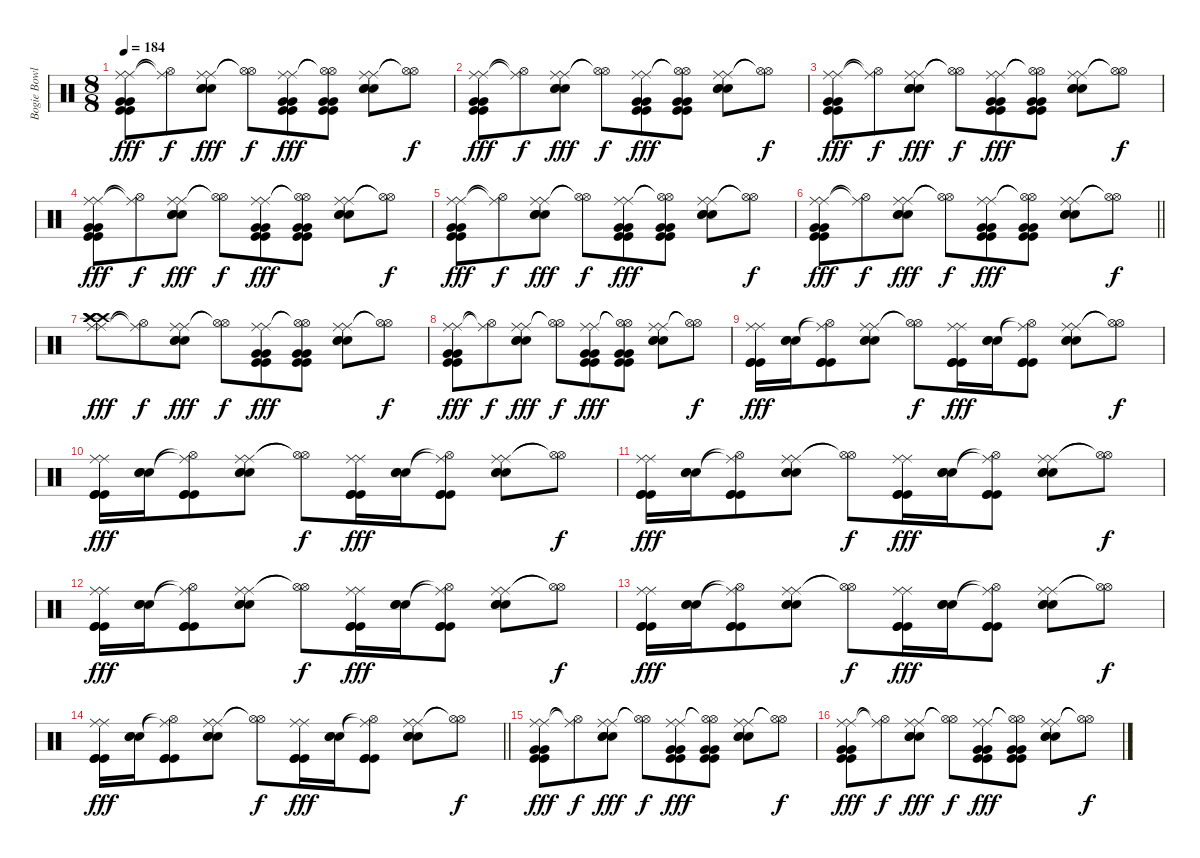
\track ("Bogie Bowles Drums" "Bogie Bowl") {instrument percussion}
\staff {score}
\articulation defaults
\ts (8 8)
\tempo 184
\clef neutral
\ks c
("Ride (middle)" "Ride (middle)" "Kick (hit)" "Kick (hit)" "Very Low Tom (hit)" "Very Low Tom (hit)").8{dy fff} ("Hi-Hat (open)"{t} "Ride (middle)"{t}).8{dy f} ("Ride (middle)" "Ride (middle)" "Snare (hit) 2" "Snare (hit) 2" "Snare (hit) 2").8{dy fff} ("Hi-Hat (open)"{t} "Hi-Hat (open)"{t}).8{dy f} ("Ride (middle)" "Ride (middle)" "Kick (hit)" "Kick (hit)" "Very Low Tom (hit)" "Very Low Tom (hit)").8{dy fff} ("Hi-Hat (open)"{t} "Hi-Hat (open)"{t} "Kick (hit)" "Kick (hit)" "Very Low Tom (hit)" "Very Low Tom (hit)").8 ("Ride (middle)" "Ride (middle)" "Snare (hit) 2" "Snare (hit) 2" "Snare (hit) 2").8 ("Hi-Hat (open)"{t} "Hi-Hat (open)"{t}).8{dy f} |
("Ride (middle)" "Ride (middle)" "Kick (hit)" "Kick (hit)" "Very Low Tom (hit)" "Very Low Tom (hit)").8{dy fff} ("Hi-Hat (open)"{t} "Ride (middle)"{t}).8{dy f} ("Ride (middle)" "Ride (middle)" "Snare (hit) 2" "Snare (hit) 2" "Snare (hit) 2").8{dy fff} ("Hi-Hat (open)"{t} "Hi-Hat (open)"{t}).8{dy f} ("Ride (middle)" "Ride (middle)" "Kick (hit)" "Kick (hit)" "Very Low Tom (hit)" "Very Low Tom (hit)").8{dy fff} ("Hi-Hat (open)"{t} "Hi-Hat (open)"{t} "Kick (hit)" "Kick (hit)" "Very Low Tom (hit)" "Very Low Tom (hit)").8 ("Ride (middle)" "Ride (middle)" "Snare (hit) 2" "Snare (hit) 2" "Snare (hit) 2").8 ("Hi-Hat (open)"{t} "Hi-Hat (open)"{t}).8{dy f} |
("Ride (middle)" "Ride (middle)" "Kick (hit)" "Kick (hit)" "Very Low Tom (hit)" "Very Low Tom (hit)").8{dy fff} ("Hi-Hat (open)"{t} "Ride (middle)"{t}).8{dy f} ("Ride (middle)" "Ride (middle)" "Snare (hit) 2" "Snare (hit) 2" "Snare (hit) 2").8{dy fff} ("Hi-Hat (open)"{t} "Hi-Hat (open)"{t}).8{dy f} ("Ride (middle)" "Ride (middle)" "Kick (hit)" "Kick (hit)" "Very Low Tom (hit)" "Very Low Tom (hit)").8{dy fff} ("Hi-Hat (open)"{t} "Hi-Hat (open)"{t} "Kick (hit)" "Kick (hit)" "Very Low Tom (hit)" "Very Low Tom (hit)").8 ("Ride (middle)" "Ride (middle)" "Snare (hit) 2" "Snare (hit) 2" "Snare (hit) 2").8 ("Hi-Hat (open)"{t} "Hi-Hat (open)"{t}).8{dy f} |
("Ride (middle)" "Ride (middle)" "Kick (hit)" "Kick (hit)" "Very Low Tom (hit)" "Very Low Tom (hit)").8{dy fff} ("Hi-Hat (open)"{t} "Ride (middle)"{t}).8{dy f} ("Ride (middle)" "Ride (middle)" "Snare (hit) 2" "Snare (hit) 2" "Snare (hit) 2").8{dy fff} ("Hi-Hat (open)"{t} "Hi-Hat (open)"{t}).8{dy f} ("Ride (middle)" "Ride (middle)" "Kick (hit)" "Kick (hit)" "Very Low Tom (hit)" "Very Low Tom (hit)").8{dy fff} ("Hi-Hat (open)"{t} "Hi-Hat (open)"{t} "Kick (hit)" "Kick (hit)" "Very Low Tom (hit)" "Very Low Tom (hit)").8 ("Ride (middle)" "Ride (middle)" "Snare (hit) 2" "Snare (hit) 2" "Snare (hit) 2").8 ("Hi-Hat (open)"{t} "Hi-Hat (open)"{t}).8{dy f} |
("Ride (middle)" "Ride (middle)" "Kick (hit)" "Kick (hit)" "Very Low Tom (hit)" "Very Low Tom (hit)").8{dy fff} ("Hi-Hat (open)"{t} "Ride (middle)"{t}).8{dy f} ("Ride (middle)" "Ride (middle)" "Snare (hit) 2" "Snare (hit) 2" "Snare (hit) 2").8{dy fff} ("Hi-Hat (open)"{t} "Hi-Hat (open)"{t}).8{dy f} ("Ride (middle)" "Ride (middle)" "Kick (hit)" "Kick (hit)" "Very Low Tom (hit)" "Very Low Tom (hit)").8{dy fff} ("Hi-Hat (open)"{t} "Hi-Hat (open)"{t} "Kick (hit)" "Kick (hit)" "Very Low Tom (hit)" "Very Low Tom (hit)").8 ("Ride (middle)" "Ride (middle)" "Snare (hit) 2" "Snare (hit) 2" "Snare (hit) 2").8 ("Hi-Hat (open)"{t} "Hi-Hat (open)"{t}).8{dy f} |
\barLineRight lightlight
("Ride (middle)" "Ride (middle)" "Kick (hit)" "Kick (hit)" "Very Low Tom (hit)" "Very Low Tom (hit)").8{dy fff} ("Hi-Hat (open)"{t} "Ride (middle)"{t}).8{dy f} ("Ride (middle)" "Ride (middle)" "Snare (hit) 2" "Snare (hit) 2" "Snare (hit) 2").8{dy fff} ("Hi-Hat (open)"{t} "Hi-Hat (open)"{t}).8{dy f} ("Ride (middle)" "Ride (middle)" "Kick (hit)" "Kick (hit)" "Very Low Tom (hit)" "Very Low Tom (hit)").8{dy fff} ("Hi-Hat (open)"{t} "Hi-Hat (open)"{t} "Kick (hit)" "Kick (hit)" "Very Low Tom (hit)" "Very Low Tom (hit)").8 ("Ride (middle)" "Ride (middle)" "Snare (hit) 2" "Snare (hit) 2" "Snare (hit) 2").8 ("Hi-Hat (open)"{t} "Hi-Hat (open)"{t}).8{dy f} |
("Ride (middle)" "Ride (middle)" "Crash high (hit)" "Crash high (hit)" "Crash high (hit)" "Crash high (hit)").8{dy fff} ("Hi-Hat (open)"{t} "Ride (middle)"{t}).8{dy f} ("Ride (middle)" "Ride (middle)" "Snare (hit) 2" "Snare (hit) 2" "Snare (hit) 2").8{dy fff} ("Hi-Hat (open)"{t} "Hi-Hat (open)"{t}).8{dy f} ("Ride (middle)" "Ride (middle)" "Kick (hit)" "Kick (hit)" "Very Low Tom (hit)" "Very Low Tom (hit)").8{dy fff} ("Hi-Hat (open)"{t} "Hi-Hat (open)"{t} "Kick (hit)" "Kick (hit)" "Very Low Tom (hit)" "Very Low Tom (hit)").8 ("Ride (middle)" "Ride (middle)" "Snare (hit) 2" "Snare (hit) 2" "Snare (hit) 2").8 ("Hi-Hat (open)"{t} "Hi-Hat (open)"{t}).8{dy f} |
("Ride (middle)" "Ride (middle)" "Kick (hit)" "Kick (hit)" "Very Low Tom (hit)" "Very Low Tom (hit)").8{dy fff} ("Hi-Hat (open)"{t} "Ride (middle)"{t}).8{dy f} ("Ride (middle)" "Ride (middle)" "Snare (hit) 2" "Snare (hit) 2" "Snare (hit) 2").8{dy fff} ("Hi-Hat (open)"{t} "Hi-Hat (open)"{t}).8{dy f} ("Ride (middle)" "Ride (middle)" "Kick (hit)" "Kick (hit)" "Very Low Tom (hit)" "Very Low Tom (hit)").8{dy fff} ("Hi-Hat (open)"{t} "Hi-Hat (open)"{t} "Kick (hit)" "Kick (hit)" "Very Low Tom (hit)" "Very Low Tom (hit)").8 ("Ride (middle)" "Ride (middle)" "Snare (hit) 2" "Snare (hit) 2" "Snare (hit) 2").8 ("Hi-Hat (open)"{t} "Hi-Hat (open)"{t}).8{dy f} |
("Ride (middle)" "Ride (middle)" "Kick (hit)" "Kick (hit)" "Kick (hit)").16{dy fff} ("Snare (hit) 2" "Snare (hit) 2" "Snare (hit) 2").16 ("Hi-Hat (open)"{t} "Ride (middle)"{t} "Kick (hit)" "Kick (hit)" "Kick (hit)").8 ("Ride (middle)" "Ride (middle)" "Snare (hit) 2" "Snare (hit) 2" "Snare (hit) 2").8 ("Hi-Hat (open)"{t} "Hi-Hat (open)"{t}).8{dy f} ("Ride (middle)" "Ride (middle)" "Kick (hit)" "Kick (hit)" "Kick (hit)").16{dy fff} ("Snare (hit) 2" "Snare (hit) 2" "Snare (hit) 2").16 ("Hi-Hat (open)"{t} "Ride (middle)"{t} "Kick (hit)" "Kick (hit)" "Kick (hit)").8 ("Ride (middle)" "Ride (middle)" "Snare (hit) 2" "Snare (hit) 2" "Snare (hit) 2").8 ("Hi-Hat (open)"{t} "Hi-Hat (open)"{t}).8{dy f} |
("Ride (middle)" "Ride (middle)" "Kick (hit)" "Kick (hit)" "Kick (hit)").16{dy fff} ("Snare (hit) 2" "Snare (hit) 2" "Snare (hit) 2").16 ("Hi-Hat (open)"{t} "Ride (middle)"{t} "Kick (hit)" "Kick (hit)" "Kick (hit)").8 ("Ride (middle)" "Ride (middle)" "Snare (hit) 2" "Snare (hit) 2" "Snare (hit) 2").8 ("Hi-Hat (open)"{t} "Hi-Hat (open)"{t}).8{dy f} ("Ride (middle)" "Ride (middle)" "Kick (hit)" "Kick (hit)" "Kick (hit)").16{dy fff} ("Snare (hit) 2" "Snare (hit) 2" "Snare (hit) 2").16 ("Hi-Hat (open)"{t} "Ride (middle)"{t} "Kick (hit)" "Kick (hit)" "Kick (hit)").8 ("Ride (middle)" "Ride (middle)" "Snare (hit) 2" "Snare (hit) 2" "Snare (hit) 2").8 ("Hi-Hat (open)"{t} "Hi-Hat (open)"{t}).8{dy f} |
("Ride (middle)" "Ride (middle)" "Kick (hit)" "Kick (hit)" "Kick (hit)").16{dy fff} ("Snare (hit) 2" "Snare (hit) 2" "Snare (hit) 2").16 ("Hi-Hat (open)"{t} "Ride (middle)"{t} "Kick (hit)" "Kick (hit)" "Kick (hit)").8 ("Ride (middle)" "Ride (middle)" "Snare (hit) 2" "Snare (hit) 2" "Snare (hit) 2").8 ("Hi-Hat (open)"{t} "Hi-Hat (open)"{t}).8{dy f} ("Ride (middle)" "Ride (middle)" "Kick (hit)" "Kick (hit)" "Kick (hit)").16{dy fff} ("Snare (hit) 2" "Snare (hit) 2" "Snare (hit) 2").16 ("Hi-Hat (open)"{t} "Ride (middle)"{t} "Kick (hit)" "Kick (hit)" "Kick (hit)").8 ("Ride (middle)" "Ride (middle)" "Snare (hit) 2" "Snare (hit) 2" "Snare (hit) 2").8 ("Hi-Hat (open)"{t} "Hi-Hat (open)"{t}).8{dy f} |
("Ride (middle)" "Ride (middle)" "Kick (hit)" "Kick (hit)" "Kick (hit)").16{dy fff} ("Snare (hit) 2" "Snare (hit) 2" "Snare (hit) 2").16 ("Hi-Hat (open)"{t} "Ride (middle)"{t} "Kick (hit)" "Kick (hit)" "Kick (hit)").8 ("Ride (middle)" "Ride (middle)" "Snare (hit) 2" "Snare (hit) 2" "Snare (hit) 2").8 ("Hi-Hat (open)"{t} "Hi-Hat (open)"{t}).8{dy f} ("Ride (middle)" "Ride (middle)" "Kick (hit)" "Kick (hit)" "Kick (hit)").16{dy fff} ("Snare (hit) 2" "Snare (hit) 2" "Snare (hit) 2").16 ("Hi-Hat (open)"{t} "Ride (middle)"{t} "Kick (hit)" "Kick (hit)" "Kick (hit)").8 ("Ride (middle)" "Ride (middle)" "Snare (hit) 2" "Snare (hit) 2" "Snare (hit) 2").8 ("Hi-Hat (open)"{t} "Hi-Hat (open)"{t}).8{dy f} |
("Ride (middle)" "Ride (middle)" "Kick (hit)" "Kick (hit)" "Kick (hit)").16{dy fff} ("Snare (hit) 2" "Snare (hit) 2" "Snare (hit) 2").16 ("Hi-Hat (open)"{t} "Ride (middle)"{t} "Kick (hit)" "Kick (hit)" "Kick (hit)").8 ("Ride (middle)" "Ride (middle)" "Snare (hit) 2" "Snare (hit) 2" "Snare (hit) 2").8 ("Hi-Hat (open)"{t} "Hi-Hat (open)"{t}).8{dy f} ("Ride (middle)" "Ride (middle)" "Kick (hit)" "Kick (hit)" "Kick (hit)").16{dy fff} ("Snare (hit) 2" "Snare (hit) 2" "Snare (hit) 2").16 ("Hi-Hat (open)"{t} "Ride (middle)"{t} "Kick (hit)" "Kick (hit)" "Kick (hit)").8 ("Ride (middle)" "Ride (middle)" "Snare (hit) 2" "Snare (hit) 2" "Snare (hit) 2").8 ("Hi-Hat (open)"{t} "Hi-Hat (open)"{t}).8{dy f} |
\barLineRight lightlight
("Ride (middle)" "Ride (middle)" "Kick (hit)" "Kick (hit)" "Kick (hit)").16{dy fff} ("Snare (hit) 2" "Snare (hit) 2" "Snare (hit) 2").16 ("Hi-Hat (open)"{t} "Ride (middle)"{t} "Kick (hit)" "Kick (hit)" "Kick (hit)").8 ("Ride (middle)" "Ride (middle)" "Snare (hit) 2" "Snare (hit) 2" "Snare (hit) 2").8 ("Hi-Hat (open)"{t} "Hi-Hat (open)"{t}).8{dy f} ("Ride (middle)" "Ride (middle)" "Kick (hit)" "Kick (hit)" "Kick (hit)").16{dy fff} ("Snare (hit) 2" "Snare (hit) 2" "Snare (hit) 2").16 ("Hi-Hat (open)"{t} "Ride (middle)"{t} "Kick (hit)" "Kick (hit)" "Kick (hit)").8 ("Ride (middle)" "Ride (middle)" "Snare (hit) 2" "Snare (hit) 2" "Snare (hit) 2").8 ("Hi-Hat (open)"{t} "Hi-Hat (open)"{t}).8{dy f} |
("Ride (middle)" "Ride (middle)" "Kick (hit)" "Kick (hit)" "Very Low Tom (hit)" "Very Low Tom (hit)").8{dy fff} ("Hi-Hat (open)"{t} "Ride (middle)"{t}).8{dy f} ("Ride (middle)" "Ride (middle)" "Snare (hit) 2" "Snare (hit) 2" "Snare (hit) 2").8{dy fff} ("Hi-Hat (open)"{t} "Hi-Hat (open)"{t}).8{dy f} ("Ride (middle)" "Ride (middle)" "Kick (hit)" "Kick (hit)" "Very Low Tom (hit)" "Very Low Tom (hit)").8{dy fff} ("Hi-Hat (open)"{t} "Hi-Hat (open)"{t} "Kick (hit)" "Kick (hit)" "Very Low Tom (hit)" "Very Low Tom (hit)").8 ("Ride (middle)" "Ride (middle)" "Snare (hit) 2" "Snare (hit) 2" "Snare (hit) 2").8 ("Hi-Hat (open)"{t} "Hi-Hat (open)"{t}).8{dy f} |
("Ride (middle)" "Ride (middle)" "Kick (hit)" "Kick (hit)" "Very Low Tom (hit)" "Very Low Tom (hit)").8{dy fff} ("Hi-Hat (open)"{t} "Ride (middle)"{t}).8{dy f} ("Ride (middle)" "Ride (middle)" "Snare (hit) 2" "Snare (hit) 2" "Snare (hit) 2").8{dy fff} ("Hi-Hat (open)"{t} "Hi-Hat (open)"{t}).8{dy f} ("Ride (middle)" "Ride (middle)" "Kick (hit)" "Kick (hit)" "Very Low Tom (hit)" "Very Low Tom (hit)").8{dy fff} ("Hi-Hat (open)"{t} "Hi-Hat (open)"{t} "Kick (hit)" "Kick (hit)" "Very Low Tom (hit)" "Very Low Tom (hit)").8 ("Ride (middle)" "Ride (middle)" "Snare (hit) 2" "Snare (hit) 2" "Snare (hit) 2").8 ("Hi-Hat (open)"{t} "Hi-Hat (open)"{t}).8{dy f}
